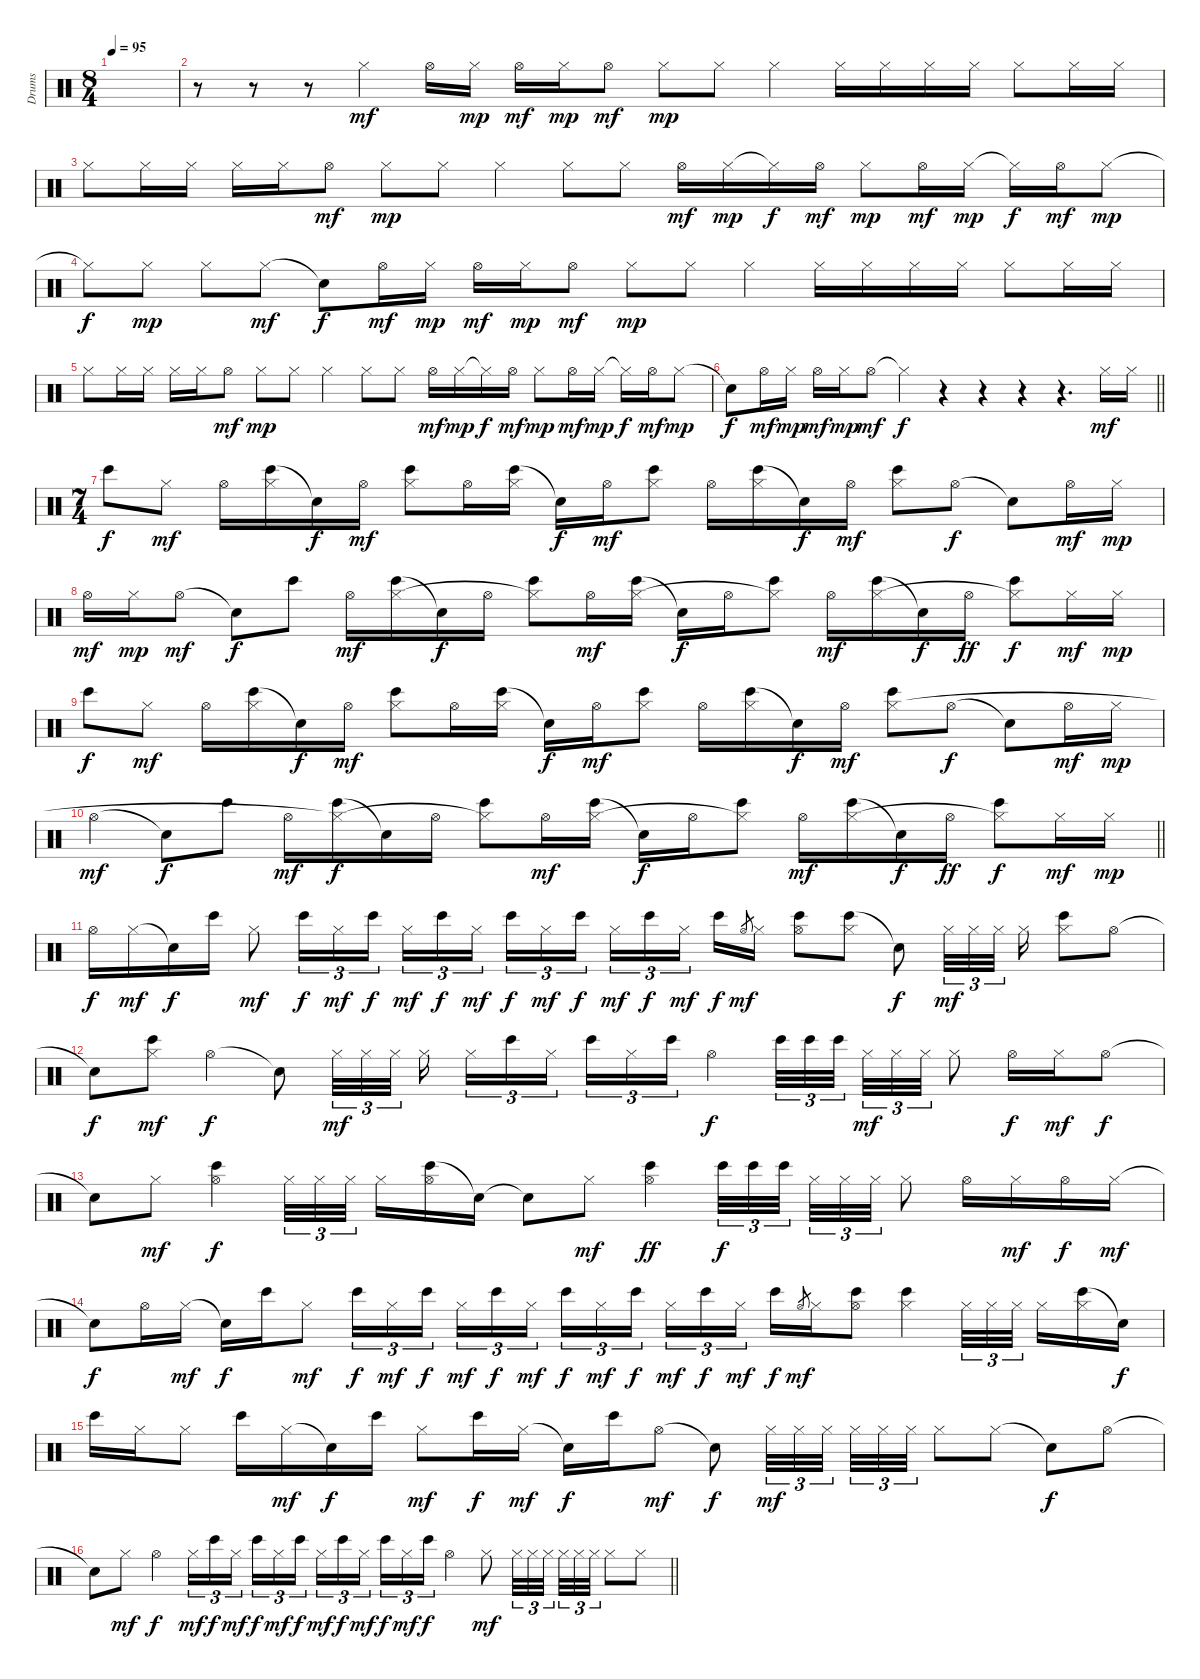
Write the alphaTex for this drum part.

\track ("Drums" "Drums") {instrument percussion}
\staff {score}
\articulation defaults
\ts (8 4)
\tempo 95
\clef neutral
\ks c
|
r.8 r.8 r.8 "Hi-Hat (closed)".4{dy mf} "Hi-Hat (open)".16 "Hi-Hat (closed)".16{dy mp} "Hi-Hat (open)".16{dy mf} "Hi-Hat (closed)".16{dy mp} "Hi-Hat (open)".8{dy mf} "Hi-Hat (closed)".8{dy mp} "Hi-Hat (closed)".8 "Hi-Hat (closed)".4 "Hi-Hat (closed)".16 "Hi-Hat (closed)".16 "Hi-Hat (closed)".16 "Hi-Hat (closed)".16 "Hi-Hat (closed)".8 "Hi-Hat (closed)".16 "Hi-Hat (closed)".16 |
"Hi-Hat (closed)".8 "Hi-Hat (closed)".16 "Hi-Hat (closed)".16 "Hi-Hat (closed)".16 "Hi-Hat (closed)".16 "Hi-Hat (open)".8{dy mf} "Hi-Hat (closed)".8{dy mp} "Hi-Hat (closed)".8 "Hi-Hat (closed)".4 "Hi-Hat (closed)".8 "Hi-Hat (closed)".8 "Hi-Hat (open)".16{dy mf} "Hi-Hat (closed)".16{dy mp} "Hi-Hat (closed)"{t}.16{dy f} "Hi-Hat (open)".16{dy mf} "Hi-Hat (closed)".8{dy mp} "Hi-Hat (open)".16{dy mf} "Hi-Hat (closed)".16{dy mp} "Hi-Hat (closed)"{t}.16{dy f} "Hi-Hat (open)".16{dy mf} "Hi-Hat (closed)".8{dy mp} |
"Hi-Hat (closed)"{t}.8{dy f} "Hi-Hat (closed)".8{dy mp} "Hi-Hat (closed)".8 "Hi-Hat (closed)".8{dy mf} "Snare (hit)"{t}.8{dy f} "Hi-Hat (open)".16{dy mf} "Hi-Hat (closed)".16{dy mp} "Hi-Hat (open)".16{dy mf} "Hi-Hat (closed)".16{dy mp} "Hi-Hat (open)".8{dy mf} "Hi-Hat (closed)".8{dy mp} "Hi-Hat (closed)".8 "Hi-Hat (closed)".4 "Hi-Hat (closed)".16 "Hi-Hat (closed)".16 "Hi-Hat (closed)".16 "Hi-Hat (closed)".16 "Hi-Hat (closed)".8 "Hi-Hat (closed)".16 "Hi-Hat (closed)".16 |
"Hi-Hat (closed)".8 "Hi-Hat (closed)".16 "Hi-Hat (closed)".16 "Hi-Hat (closed)".16 "Hi-Hat (closed)".16 "Hi-Hat (open)".8{dy mf} "Hi-Hat (closed)".8{dy mp} "Hi-Hat (closed)".8 "Hi-Hat (closed)".4 "Hi-Hat (closed)".8 "Hi-Hat (closed)".8 "Hi-Hat (open)".16{dy mf} "Hi-Hat (closed)".16{dy mp} "Hi-Hat (closed)"{t}.16{dy f} "Hi-Hat (open)".16{dy mf} "Hi-Hat (closed)".8{dy mp} "Hi-Hat (open)".16{dy mf} "Hi-Hat (closed)".16{dy mp} "Hi-Hat (closed)"{t}.16{dy f} "Hi-Hat (open)".16{dy mf} "Hi-Hat (closed)".8{dy mp} |
\barLineRight lightlight "Snare (hit)"{t}.8{dy f} "Hi-Hat (open)".16{dy mf} "Hi-Hat (closed)".16{dy mp} "Hi-Hat (open)".16{dy mf} "Hi-Hat (closed)".16{dy mp} "Hi-Hat (open)".8{dy mf} "Hi-Hat (closed)"{t}.4{dy f}
r.4 r.4 r.4 r.4{d} "Hi-Hat (closed)".16{dy mf} "Hi-Hat (closed)".16 |
\ts (7 4)
\section ("" "")
"Bongo High (hit)".8{dy f} "Hi-Hat (closed)".8{dy mf} "Hi-Hat (open)".16 ("Bongo High (hit)" "Hi-Hat (closed)").16 "Snare (hit)"{t}.16{dy f} "Hi-Hat (open)".16{dy mf} ("Bongo High (hit)" "Hi-Hat (closed)").8 "Hi-Hat (open)".16 ("Bongo High (hit)" "Hi-Hat (closed)").16 "Snare (hit)"{t}.16{dy f} "Hi-Hat (open)".16{dy mf} ("Bongo High (hit)" "Hi-Hat (closed)").8 "Hi-Hat (open)".16 ("Bongo High (hit)" "Hi-Hat (closed)").16 "Snare (hit)"{t}.16{dy f} "Hi-Hat (open)".16{dy mf} ("Bongo High (hit)" "Hi-Hat (closed)").8 "Hi-Hat (open)".8{dy f} "Snare (hit)"{t}.8 "Hi-Hat (open)".16{dy mf} "Hi-Hat (closed)".16{dy mp} |
"Hi-Hat (open)".16{dy mf} "Hi-Hat (closed)".16{dy mp} "Hi-Hat (open)".8{dy mf} "Snare (hit)"{t}.8{dy f} "Bongo High (hit)".8 "Hi-Hat (open)".16{dy mf} ("Bongo High (hit)" "Hi-Hat (closed)").16 "Snare (hit)"{t}.16{dy f} "Hi-Hat (open)".16 ("Bongo High (hit)" "Hi-Hat (closed)"{t}).8 "Hi-Hat (open)".16{dy mf} ("Bongo High (hit)" "Hi-Hat (closed)").16 "Snare (hit)"{t}.16{dy f} "Hi-Hat (open)".16 ("Bongo High (hit)" "Hi-Hat (closed)"{t}).8 "Hi-Hat (open)".16{dy mf} ("Bongo High (hit)" "Hi-Hat (closed)").16 "Snare (hit)"{t}.16{dy f} "Hi-Hat (open)".16{dy ff} ("Bongo High (hit)" "Hi-Hat (closed)"{t}).8{dy f} "Hi-Hat (closed)".16{dy mf} "Hi-Hat (closed)".16{dy mp} |
"Bongo High (hit)".8{dy f} "Hi-Hat (closed)".8{dy mf} "Hi-Hat (open)".16 ("Bongo High (hit)" "Hi-Hat (closed)").16 "Snare (hit)"{t}.16{dy f} "Hi-Hat (open)".16{dy mf} ("Bongo High (hit)" "Hi-Hat (closed)").8 "Hi-Hat (open)".16 ("Bongo High (hit)" "Hi-Hat (closed)").16 "Snare (hit)"{t}.16{dy f} "Hi-Hat (open)".16{dy mf} ("Bongo High (hit)" "Hi-Hat (closed)").8 "Hi-Hat (open)".16 ("Bongo High (hit)" "Hi-Hat (closed)").16 "Snare (hit)"{t}.16{dy f} "Hi-Hat (open)".16{dy mf} ("Bongo High (hit)" "Hi-Hat (closed)").8 "Hi-Hat (open)".8{dy f} "Snare (hit)"{t}.8 "Hi-Hat (open)".16{dy mf} "Hi-Hat (closed)".16{dy mp} |
\barLineRight lightlight "Hi-Hat (open)".4{dy mf} "Snare (hit)"{t}.8{dy f} "Bongo High (hit)".8 "Hi-Hat (open)".16{dy mf}
("Bongo High (hit)" "Hi-Hat (closed)"{t}).16{dy f} "Snare (hit)"{t}.16 "Hi-Hat (open)".16 ("Bongo High (hit)" "Hi-Hat (closed)"{t}).8 "Hi-Hat (open)".16{dy mf} ("Bongo High (hit)" "Hi-Hat (closed)").16 "Snare (hit)"{t}.16{dy f} "Hi-Hat (open)".16 ("Bongo High (hit)" "Hi-Hat (closed)"{t}).8 "Hi-Hat (open)".16{dy mf} ("Bongo High (hit)" "Hi-Hat (closed)").16 "Snare (hit)"{t}.16{dy f} "Hi-Hat (open)".16{dy ff} ("Bongo High (hit)" "Hi-Hat (closed)"{t}).8{dy f} "Hi-Hat (closed)".16{dy mf} "Hi-Hat (closed)".16{dy mp} |
\section ("" "")
"Hi-Hat (open)".16{dy f} "Hi-Hat (closed)".16{dy mf} "Snare (hit)"{t}.16{dy f} "Bongo High (hit)".16 "Hi-Hat (closed)".8{dy mf} "Bongo High (hit)".16{tu (3 2) dy f} "Hi-Hat (closed)".16{tu (3 2) dy mf} "Bongo High (hit)".16{tu (3 2) dy f} "Hi-Hat (closed)".16{tu (3 2) dy mf} "Bongo High (hit)".16{tu (3 2) dy f} "Hi-Hat (closed)".16{tu (3 2) dy mf beam splitsecondary} "Bongo High (hit)".16{tu (3 2) dy f} "Hi-Hat (closed)".16{tu (3 2) dy mf} "Bongo High (hit)".16{tu (3 2) dy f} "Hi-Hat (closed)".16{tu (3 2) dy mf} "Bongo High (hit)".16{tu (3 2) dy f} "Hi-Hat (closed)".16{tu (3 2) dy mf beam splitsecondary} "Bongo High (hit)".16{dy f} "Hi-Hat (open)".8{gr dy mf} "Hi-Hat (closed)".16 ("Bongo High (hit)" "Hi-Hat (open)").8 ("Bongo High (hit)" "Hi-Hat (closed)").8 "Snare (hit)"{t}.8{dy f} "Hi-Hat (closed)".32{tu (3 2) dy mf} "Hi-Hat (closed)".32{tu (3 2)} "Hi-Hat (closed)".32{tu (3 2) beam splitsecondary} "Hi-Hat (closed)".16 ("Bongo High (hit)" "Hi-Hat (closed)").8 "Hi-Hat (open)".8 |
"Snare (hit)"{t}.8{dy f} ("Bongo High (hit)" "Hi-Hat (closed)").8{dy mf} "Hi-Hat (open)".4{dy f} "Snare (hit)"{t}.8 "Hi-Hat (closed)".32{tu (3 2) dy mf} "Hi-Hat (closed)".32{tu (3 2)} "Hi-Hat (closed)".32{tu (3 2) beam splitsecondary} "Hi-Hat (closed)".16 "Hi-Hat (closed)".16{tu (3 2)} "Bongo High (hit)".16{tu (3 2)} "Hi-Hat (closed)".16{tu (3 2) beam splitsecondary} "Bongo High (hit)".16{tu (3 2)} "Hi-Hat (closed)".16{tu (3 2)} "Bongo High (hit)".16{tu (3 2)} "Hi-Hat (open)".4{dy f} "Bongo High (hit)".32{tu (3 2)} "Bongo High (hit)".32{tu (3 2)} "Bongo High (hit)".32{tu (3 2) beam splitsecondary} "Hi-Hat (closed)".32{tu (3 2) dy mf} "Hi-Hat (closed)".32{tu (3 2)} "Hi-Hat (closed)".32{tu (3 2)} "Hi-Hat (closed)".8 "Hi-Hat (open)".16{dy f} "Hi-Hat (closed)".16{dy mf} "Hi-Hat (open)".8{dy f} |
"Snare (hit)"{t}.8 "Hi-Hat (closed)".8{dy mf} ("Bongo High (hit)" "Hi-Hat (open)").4{dy f} "Hi-Hat (closed)".32{tu (3 2)} "Hi-Hat (closed)".32{tu (3 2)} "Hi-Hat (closed)".32{tu (3 2) beam splitsecondary} "Hi-Hat (closed)".16 ("Bongo High (hit)" "Hi-Hat (open)").16 "Snare (hit)"{t}.16 "Snare (hit)"{t}.8 "Hi-Hat (closed)".8{dy mf} ("Bongo High (hit)" "Hi-Hat (open)").4{dy ff} "Bongo High (hit)".32{tu (3 2) dy f} "Bongo High (hit)".32{tu (3 2)} "Bongo High (hit)".32{tu (3 2) beam splitsecondary} "Hi-Hat (closed)".32{tu (3 2)} "Hi-Hat (closed)".32{tu (3 2)} "Hi-Hat (closed)".32{tu (3 2)} "Hi-Hat (closed)".8 "Hi-Hat (open)".16 "Hi-Hat (closed)".16{dy mf} "Hi-Hat (open)".16{dy f} "Hi-Hat (closed)".16{dy mf} |
"Snare (hit)"{t}.8{dy f} "Hi-Hat (open)".16 "Hi-Hat (closed)".16{dy mf} "Snare (hit)"{t}.16{dy f} "Bongo High (hit)".16 "Hi-Hat (closed)".8{dy mf} "Bongo High (hit)".16{tu (3 2) dy f} "Hi-Hat (closed)".16{tu (3 2) dy mf} "Bongo High (hit)".16{tu (3 2) dy f beam splitsecondary} "Hi-Hat (closed)".16{tu (3 2) dy mf} "Bongo High (hit)".16{tu (3 2) dy f} "Hi-Hat (closed)".16{tu (3 2) dy mf} "Bongo High (hit)".16{tu (3 2) dy f} "Hi-Hat (closed)".16{tu (3 2) dy mf} "Bongo High (hit)".16{tu (3 2) dy f beam splitsecondary} "Hi-Hat (closed)".16{tu (3 2) dy mf} "Bongo High (hit)".16{tu (3 2) dy f} "Hi-Hat (closed)".16{tu (3 2) dy mf} "Bongo High (hit)".16{dy f} "Hi-Hat (open)".8{gr dy mf} "Hi-Hat (closed)".16 ("Bongo High (hit)" "Hi-Hat (open)").8 ("Bongo High (hit)" "Hi-Hat (closed)").4 "Hi-Hat (closed)".32{tu (3 2)} "Hi-Hat (closed)".32{tu (3 2)} "Hi-Hat (closed)".32{tu (3 2) beam splitsecondary} "Hi-Hat (closed)".16 ("Bongo High (hit)" "Hi-Hat (closed)").16 "Snare (hit)"{t}.16{dy f} |
"Bongo High (hit)".16 "Hi-Hat (closed)".16 "Hi-Hat (closed)".8 "Bongo High (hit)".16 "Hi-Hat (closed)".16{dy mf} "Snare (hit)"{t}.16{dy f} "Bongo High (hit)".16 "Hi-Hat (closed)".8{dy mf} "Bongo High (hit)".16{dy f} "Hi-Hat (closed)".16{dy mf} "Snare (hit)"{t}.16{dy f} "Bongo High (hit)".16 "Hi-Hat (open)".8{dy mf} "Snare (hit)"{t}.8{dy f} "Hi-Hat (closed)".32{tu (3 2) dy mf} "Hi-Hat (closed)".32{tu (3 2)} "Hi-Hat (closed)".32{tu (3 2) beam splitsecondary} "Hi-Hat (closed)".32{tu (3 2)} "Hi-Hat (closed)".32{tu (3 2)} "Hi-Hat (closed)".32{tu (3 2)} "Hi-Hat (closed)".8 "Hi-Hat (closed)".8 "Snare (hit)"{t}.8{dy f} "Hi-Hat (open)".8 |
\barLineRight lightlight "Snare (hit)"{t}.8 "Hi-Hat (closed)".8{dy mf} "Hi-Hat (open)".4{dy f} "Hi-Hat (closed)".16{tu (3 2) dy mf} "Bongo High (hit)".16{tu (3 2) dy f} "Hi-Hat (closed)".16{tu (3 2) dy mf beam splitsecondary} "Bongo High (hit)".16{tu (3 2) dy f} "Hi-Hat (closed)".16{tu (3 2) dy mf} "Bongo High (hit)".16{tu (3 2) dy f} "Hi-Hat (closed)".16{tu (3 2) dy mf} "Bongo High (hit)".16{tu (3 2) dy f} "Hi-Hat (closed)".16{tu (3 2) dy mf beam splitsecondary} "Bongo High (hit)".16{tu (3 2) dy f} "Hi-Hat (closed)".16{tu (3 2) dy mf} "Bongo High (hit)".16{tu (3 2) dy f} "Hi-Hat (open)".4 "Hi-Hat (closed)".8{dy mf} "Hi-Hat (closed)".32{tu (3 2)} "Hi-Hat (closed)".32{tu (3 2)} "Hi-Hat (closed)".32{tu (3 2) beam splitsecondary} "Hi-Hat (closed)".32{tu (3 2)} "Hi-Hat (closed)".32{tu (3 2)} "Hi-Hat (closed)".32{tu (3 2)} "Hi-Hat (closed)".8 "Hi-Hat (closed)".8
